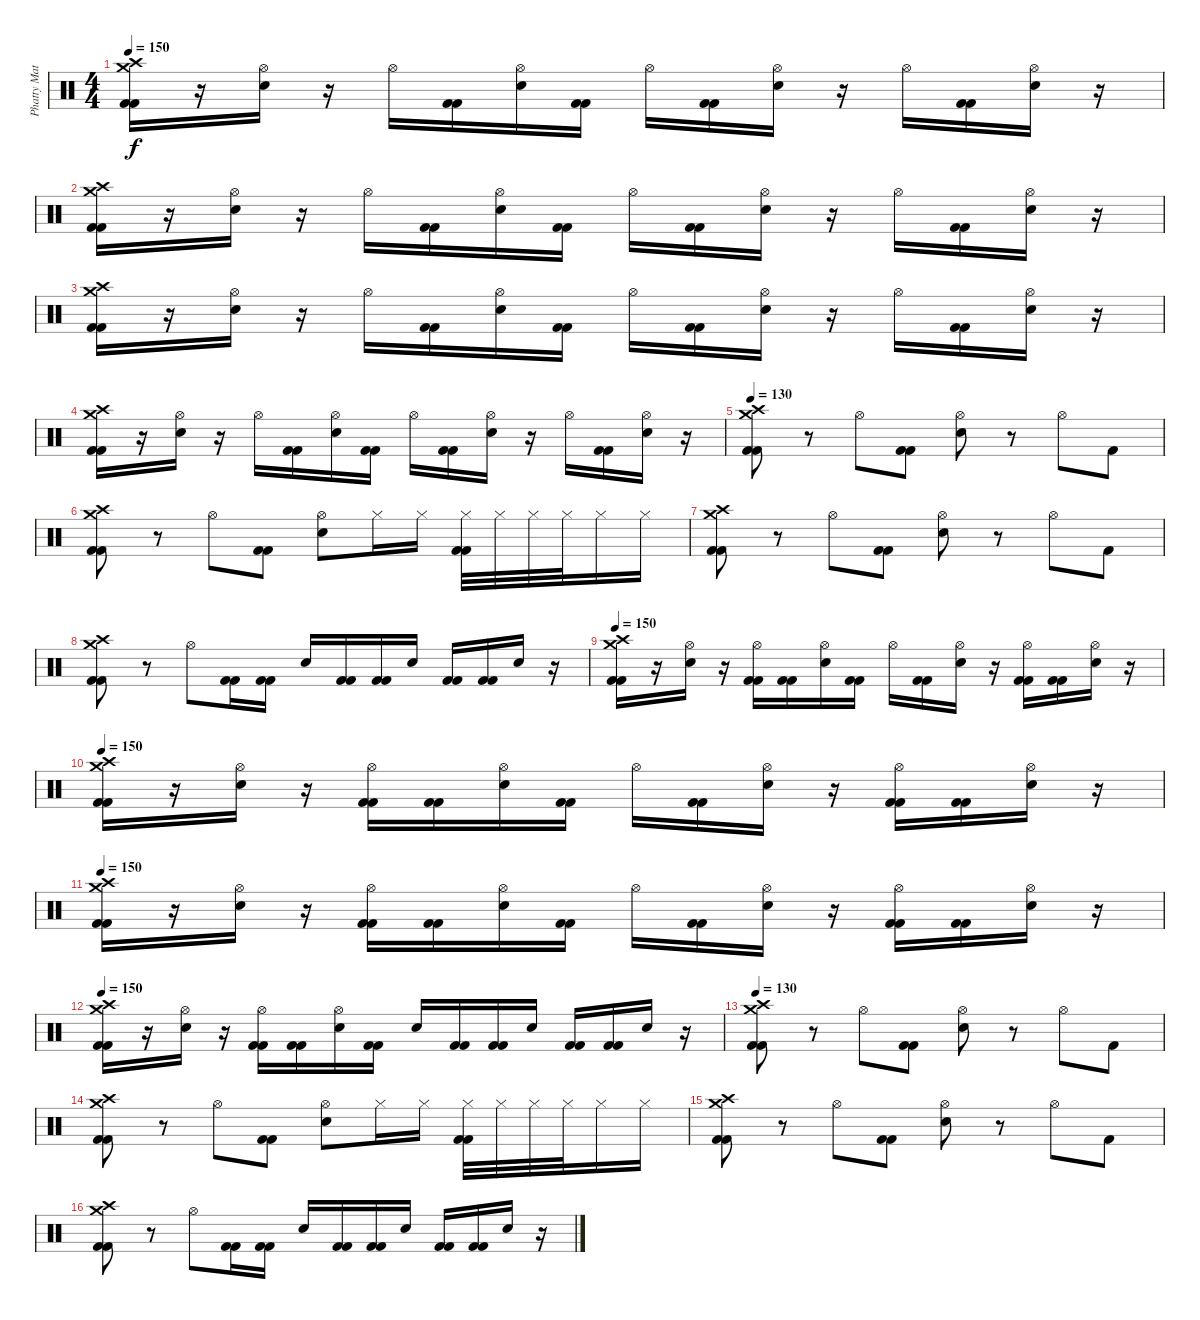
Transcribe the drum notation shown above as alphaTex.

\track ("Phatty Matty Withrow (Drums)" "Phatty Mat") {instrument percussion}
\staff {score}
\articulation defaults
\ts (4 4)
\tempo 150
\clef neutral
\ks c
("Crash high (hit)" "Crash medium (hit)" "Kick (hit) 2" "Kick (hit) 2").16{dy f} r.16 ("Hi-Hat (open)" "Electric Snare (hit)").16 r.16 "Hi-Hat (open)".16 ("Kick (hit) 2" "Kick (hit) 2").16 ("Hi-Hat (open)" "Electric Snare (hit)").16 ("Kick (hit) 2" "Kick (hit) 2").16 "Hi-Hat (open)".16 ("Kick (hit) 2" "Kick (hit) 2").16 ("Hi-Hat (open)" "Electric Snare (hit)").16 r.16 "Hi-Hat (open)".16 ("Kick (hit) 2" "Kick (hit) 2").16 ("Hi-Hat (open)" "Electric Snare (hit)").16 r.16 |
("Crash high (hit)" "Crash medium (hit)" "Kick (hit) 2" "Kick (hit) 2").16 r.16 ("Hi-Hat (open)" "Electric Snare (hit)").16 r.16 "Hi-Hat (open)".16 ("Kick (hit) 2" "Kick (hit) 2").16 ("Hi-Hat (open)" "Electric Snare (hit)").16 ("Kick (hit) 2" "Kick (hit) 2").16 "Hi-Hat (open)".16 ("Kick (hit) 2" "Kick (hit) 2").16 ("Hi-Hat (open)" "Electric Snare (hit)").16 r.16 "Hi-Hat (open)".16 ("Kick (hit) 2" "Kick (hit) 2").16 ("Hi-Hat (open)" "Electric Snare (hit)").16 r.16 |
("Crash high (hit)" "Crash medium (hit)" "Kick (hit) 2" "Kick (hit) 2").16 r.16 ("Hi-Hat (open)" "Electric Snare (hit)").16 r.16 "Hi-Hat (open)".16 ("Kick (hit) 2" "Kick (hit) 2").16 ("Hi-Hat (open)" "Electric Snare (hit)").16 ("Kick (hit) 2" "Kick (hit) 2").16 "Hi-Hat (open)".16 ("Kick (hit) 2" "Kick (hit) 2").16 ("Hi-Hat (open)" "Electric Snare (hit)").16 r.16 "Hi-Hat (open)".16 ("Kick (hit) 2" "Kick (hit) 2").16 ("Hi-Hat (open)" "Electric Snare (hit)").16 r.16 |
("Crash high (hit)" "Crash medium (hit)" "Kick (hit) 2" "Kick (hit) 2").16 r.16 ("Hi-Hat (open)" "Electric Snare (hit)").16 r.16 "Hi-Hat (open)".16 ("Kick (hit) 2" "Kick (hit) 2").16 ("Hi-Hat (open)" "Electric Snare (hit)").16 ("Kick (hit) 2" "Kick (hit) 2").16 "Hi-Hat (open)".16 ("Kick (hit) 2" "Kick (hit) 2").16 ("Hi-Hat (open)" "Electric Snare (hit)").16 r.16 "Hi-Hat (open)".16 ("Kick (hit) 2" "Kick (hit) 2").16 ("Hi-Hat (open)" "Electric Snare (hit)").16 r.16 |
\tempo 130
("Crash high (hit)" "Crash medium (hit)" "Kick (hit) 2" "Kick (hit) 2").8 r.8 "Hi-Hat (open)".8 ("Kick (hit) 2" "Kick (hit) 2").8 ("Hi-Hat (open)" "Electric Snare (hit)").8 r.8 "Hi-Hat (open)".8 "Kick (hit) 2".8 |
("Crash high (hit)" "Crash medium (hit)" "Kick (hit) 2" "Kick (hit) 2").8 r.8 "Hi-Hat (open)".8 ("Kick (hit) 2" "Kick (hit) 2").8 ("Hi-Hat (open)" "Electric Snare (hit)").8 "Hi-Hat (closed)".16 "Hi-Hat (closed)".16 ("Hi-Hat (closed)" "Kick (hit) 2" "Kick (hit) 2").32 "Hi-Hat (closed)".32 "Hi-Hat (closed)".32 "Hi-Hat (closed)".32 "Hi-Hat (closed)".16 "Hi-Hat (closed)".16 |
("Crash high (hit)" "Crash medium (hit)" "Kick (hit) 2" "Kick (hit) 2").8 r.8 "Hi-Hat (open)".8 ("Kick (hit) 2" "Kick (hit) 2").8 ("Hi-Hat (open)" "Electric Snare (hit)").8 r.8 "Hi-Hat (open)".8 "Kick (hit) 2".8 |
("Crash high (hit)" "Crash medium (hit)" "Kick (hit) 2" "Kick (hit) 2").8 r.8 "Hi-Hat (open)".8 ("Kick (hit) 2" "Kick (hit) 2").16 ("Kick (hit) 2" "Kick (hit) 2").16 "Electric Snare (hit)".16 ("Kick (hit) 2" "Kick (hit) 2").16 ("Kick (hit) 2" "Kick (hit) 2").16 "Electric Snare (hit)".16 ("Kick (hit) 2" "Kick (hit) 2").16 ("Kick (hit) 2" "Kick (hit) 2").16 "Electric Snare (hit)".16 r.16 |
\tempo 150
("Crash high (hit)" "Crash medium (hit)" "Kick (hit) 2" "Kick (hit) 2").16 r.16 ("Hi-Hat (open)" "Electric Snare (hit)").16 r.16 ("Hi-Hat (open)" "Kick (hit) 2" "Kick (hit) 2").16 ("Kick (hit) 2" "Kick (hit) 2").16 ("Hi-Hat (open)" "Electric Snare (hit)").16 ("Kick (hit) 2" "Kick (hit) 2").16 "Hi-Hat (open)".16 ("Kick (hit) 2" "Kick (hit) 2").16 ("Hi-Hat (open)" "Electric Snare (hit)").16 r.16 ("Hi-Hat (open)" "Kick (hit) 2" "Kick (hit) 2").16 ("Kick (hit) 2" "Kick (hit) 2").16 ("Hi-Hat (open)" "Electric Snare (hit)").16 r.16 |
\tempo 150
("Crash high (hit)" "Crash medium (hit)" "Kick (hit) 2" "Kick (hit) 2").16 r.16 ("Hi-Hat (open)" "Electric Snare (hit)").16 r.16 ("Hi-Hat (open)" "Kick (hit) 2" "Kick (hit) 2").16 ("Kick (hit) 2" "Kick (hit) 2").16 ("Hi-Hat (open)" "Electric Snare (hit)").16 ("Kick (hit) 2" "Kick (hit) 2").16 "Hi-Hat (open)".16 ("Kick (hit) 2" "Kick (hit) 2").16 ("Hi-Hat (open)" "Electric Snare (hit)").16 r.16 ("Hi-Hat (open)" "Kick (hit) 2" "Kick (hit) 2").16 ("Kick (hit) 2" "Kick (hit) 2").16 ("Hi-Hat (open)" "Electric Snare (hit)").16 r.16 |
\tempo 150
("Crash high (hit)" "Crash medium (hit)" "Kick (hit) 2" "Kick (hit) 2").16 r.16 ("Hi-Hat (open)" "Electric Snare (hit)").16 r.16 ("Hi-Hat (open)" "Kick (hit) 2" "Kick (hit) 2").16 ("Kick (hit) 2" "Kick (hit) 2").16 ("Hi-Hat (open)" "Electric Snare (hit)").16 ("Kick (hit) 2" "Kick (hit) 2").16 "Hi-Hat (open)".16 ("Kick (hit) 2" "Kick (hit) 2").16 ("Hi-Hat (open)" "Electric Snare (hit)").16 r.16 ("Hi-Hat (open)" "Kick (hit) 2" "Kick (hit) 2").16 ("Kick (hit) 2" "Kick (hit) 2").16 ("Hi-Hat (open)" "Electric Snare (hit)").16 r.16 |
\tempo 150
("Crash high (hit)" "Crash medium (hit)" "Kick (hit) 2" "Kick (hit) 2").16 r.16 ("Hi-Hat (open)" "Electric Snare (hit)").16 r.16 ("Hi-Hat (open)" "Kick (hit) 2" "Kick (hit) 2").16 ("Kick (hit) 2" "Kick (hit) 2").16 ("Hi-Hat (open)" "Electric Snare (hit)").16 ("Kick (hit) 2" "Kick (hit) 2").16 "Electric Snare (hit)".16 ("Kick (hit) 2" "Kick (hit) 2").16 ("Kick (hit) 2" "Kick (hit) 2").16 "Electric Snare (hit)".16 ("Kick (hit) 2" "Kick (hit) 2").16 ("Kick (hit) 2" "Kick (hit) 2").16 "Electric Snare (hit)".16 r.16 |
\tempo 130
("Crash high (hit)" "Crash medium (hit)" "Kick (hit) 2" "Kick (hit) 2").8 r.8 "Hi-Hat (open)".8 ("Kick (hit) 2" "Kick (hit) 2").8 ("Hi-Hat (open)" "Electric Snare (hit)").8 r.8 "Hi-Hat (open)".8 "Kick (hit) 2".8 |
("Crash high (hit)" "Crash medium (hit)" "Kick (hit) 2" "Kick (hit) 2").8 r.8 "Hi-Hat (open)".8 ("Kick (hit) 2" "Kick (hit) 2").8 ("Hi-Hat (open)" "Electric Snare (hit)").8 "Hi-Hat (closed)".16 "Hi-Hat (closed)".16 ("Hi-Hat (closed)" "Kick (hit) 2" "Kick (hit) 2").32 "Hi-Hat (closed)".32 "Hi-Hat (closed)".32 "Hi-Hat (closed)".32 "Hi-Hat (closed)".16 "Hi-Hat (closed)".16 |
("Crash high (hit)" "Crash medium (hit)" "Kick (hit) 2" "Kick (hit) 2").8 r.8 "Hi-Hat (open)".8 ("Kick (hit) 2" "Kick (hit) 2").8 ("Hi-Hat (open)" "Electric Snare (hit)").8 r.8 "Hi-Hat (open)".8 "Kick (hit) 2".8 |
("Crash high (hit)" "Crash medium (hit)" "Kick (hit) 2" "Kick (hit) 2").8 r.8 "Hi-Hat (open)".8 ("Kick (hit) 2" "Kick (hit) 2").16 ("Kick (hit) 2" "Kick (hit) 2").16 "Electric Snare (hit)".16 ("Kick (hit) 2" "Kick (hit) 2").16 ("Kick (hit) 2" "Kick (hit) 2").16 "Electric Snare (hit)".16 ("Kick (hit) 2" "Kick (hit) 2").16 ("Kick (hit) 2" "Kick (hit) 2").16 "Electric Snare (hit)".16 r.16
